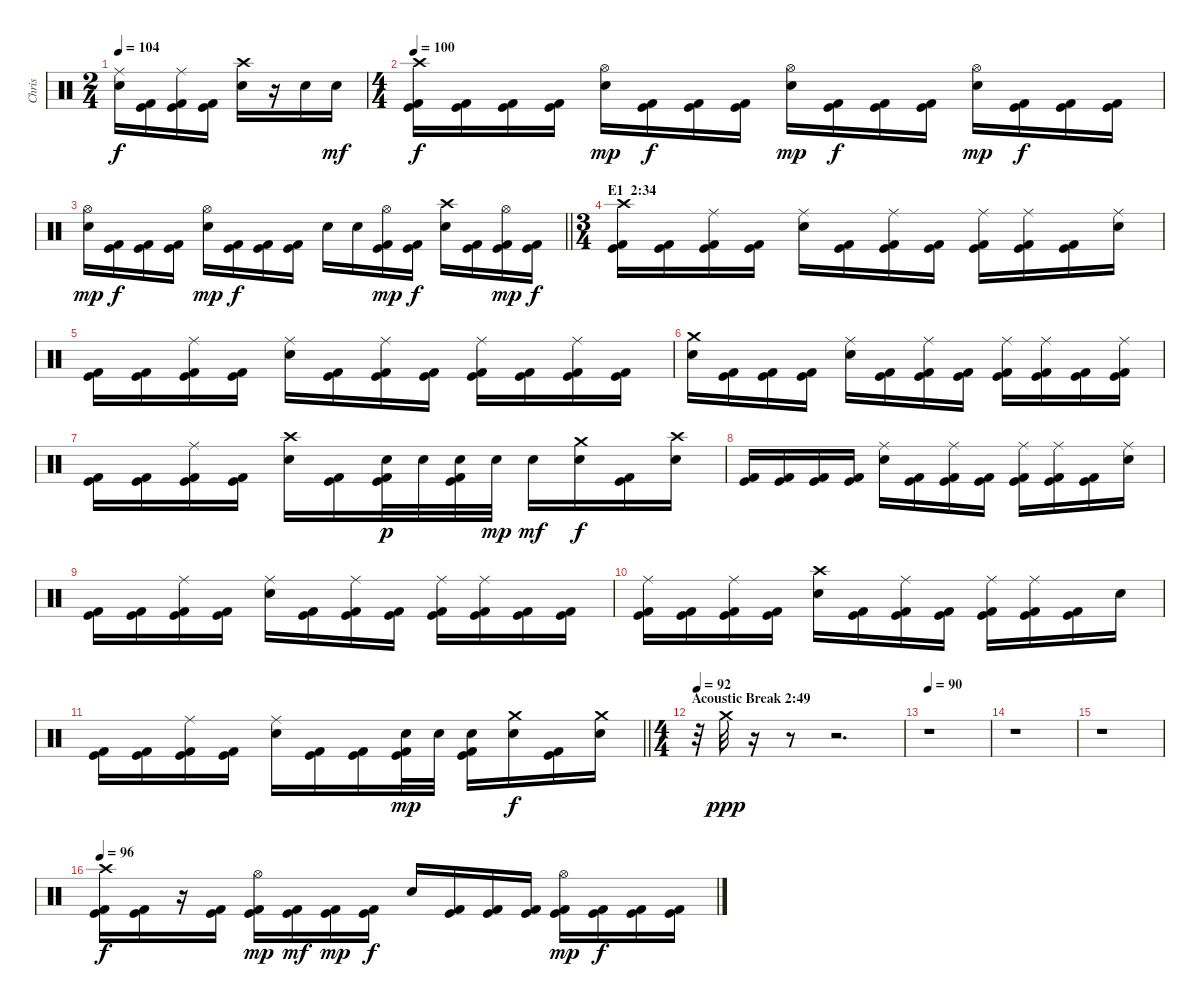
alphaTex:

\track ("Chris" "Chris") {instrument percussion}
\staff {score}
\articulation defaults
\ts (2 4)
\tempo 104
\clef neutral
\ks c
("Ride (middle)" "Electric Snare (hit)").16{dy f} ("Kick (hit)" "Kick (hit) 2").16 ("Ride (middle)" "Kick (hit)" "Kick (hit) 2").16 ("Kick (hit)" "Kick (hit) 2").16 ("Crash high (hit)" "Electric Snare (hit)").16 r.16 "Electric Snare (hit)".16 "Electric Snare (hit)".16{dy mf} |
\ts (4 4)
\tempo 100
("Crash high (hit)" "Kick (hit)" "Kick (hit) 2").16{dy f} ("Kick (hit)" "Kick (hit) 2").16 ("Kick (hit)" "Kick (hit) 2").16 ("Kick (hit)" "Kick (hit) 2").16 ("Hi-Hat (open)" "Electric Snare (hit)").16{dy mp} ("Kick (hit)" "Kick (hit) 2").16{dy f} ("Kick (hit)" "Kick (hit) 2").16 ("Kick (hit)" "Kick (hit) 2").16 ("Hi-Hat (open)" "Electric Snare (hit)").16{dy mp} ("Kick (hit)" "Kick (hit) 2").16{dy f} ("Kick (hit)" "Kick (hit) 2").16 ("Kick (hit)" "Kick (hit) 2").16 ("Hi-Hat (open)" "Electric Snare (hit)").16{dy mp} ("Kick (hit)" "Kick (hit) 2").16{dy f} ("Kick (hit)" "Kick (hit) 2").16 ("Kick (hit)" "Kick (hit) 2").16 |
\barLineRight lightlight
("Hi-Hat (open)" "Electric Snare (hit)").16{dy mp} ("Kick (hit)" "Kick (hit) 2").16{dy f} ("Kick (hit)" "Kick (hit) 2").16 ("Kick (hit)" "Kick (hit) 2").16 ("Hi-Hat (open)" "Electric Snare (hit)").16{dy mp} ("Kick (hit)" "Kick (hit) 2").16{dy f} ("Kick (hit)" "Kick (hit) 2").16 ("Kick (hit)" "Kick (hit) 2").16 "Electric Snare (hit)".16 "Electric Snare (hit)".16 ("Hi-Hat (open)" "Kick (hit)" "Kick (hit) 2").16{dy mp} ("Kick (hit)" "Kick (hit) 2").16{dy f} ("Crash high (hit)" "Electric Snare (hit)").16 ("Kick (hit)" "Kick (hit) 2").16 ("Hi-Hat (open)" "Kick (hit)" "Kick (hit) 2").16{dy mp} ("Kick (hit)" "Kick (hit) 2").16{dy f} |
\ts (3 4)
\section ("" "E1  2:34")
("Crash high (hit)" "Kick (hit)" "Kick (hit) 2").16 ("Kick (hit)" "Kick (hit) 2").16 ("Ride (middle)" "Kick (hit)" "Kick (hit) 2").16 ("Kick (hit)" "Kick (hit) 2").16 ("Ride (middle)" "Electric Snare (hit)").16 ("Kick (hit)" "Kick (hit) 2").16 ("Ride (middle)" "Kick (hit)" "Kick (hit) 2").16 ("Kick (hit)" "Kick (hit) 2").16 ("Ride (middle)" "Kick (hit)" "Kick (hit) 2").16 ("Ride (middle)" "Kick (hit)" "Kick (hit) 2").16 ("Kick (hit)" "Kick (hit) 2").16 ("Ride (middle)" "Electric Snare (hit)").16 |
("Kick (hit)" "Kick (hit) 2").16 ("Kick (hit)" "Kick (hit) 2").16 ("Ride (middle)" "Kick (hit)" "Kick (hit) 2").16 ("Kick (hit)" "Kick (hit) 2").16 ("Ride (middle)" "Electric Snare (hit)").16 ("Kick (hit)" "Kick (hit) 2").16 ("Ride (middle)" "Kick (hit)" "Kick (hit) 2").16 ("Kick (hit)" "Kick (hit) 2").16 ("Ride (middle)" "Kick (hit)" "Kick (hit) 2").16 ("Kick (hit)" "Kick (hit) 2").16 ("Ride (middle)" "Kick (hit)" "Kick (hit) 2").16 ("Kick (hit)" "Kick (hit) 2").16 |
("Crash medium (hit)" "Electric Snare (hit)").16 ("Kick (hit)" "Kick (hit) 2").16 ("Kick (hit)" "Kick (hit) 2").16 ("Kick (hit)" "Kick (hit) 2").16 ("Ride (middle)" "Electric Snare (hit)").16 ("Kick (hit)" "Kick (hit) 2").16 ("Ride (middle)" "Kick (hit)" "Kick (hit) 2").16 ("Kick (hit)" "Kick (hit) 2").16 ("Ride (middle)" "Kick (hit)" "Kick (hit) 2").16 ("Ride (middle)" "Kick (hit)" "Kick (hit) 2").16 ("Kick (hit)" "Kick (hit) 2").16 ("Ride (middle)" "Kick (hit)" "Kick (hit) 2").16 |
("Kick (hit)" "Kick (hit) 2").16 ("Kick (hit)" "Kick (hit) 2").16 ("Ride (middle)" "Kick (hit)" "Kick (hit) 2").16 ("Kick (hit)" "Kick (hit) 2").16 ("Crash high (hit)" "Electric Snare (hit)").16 ("Kick (hit)" "Kick (hit) 2").16 ("Electric Snare (hit)" "Kick (hit)" "Kick (hit) 2").32{dy p} "Electric Snare (hit)".32 ("Electric Snare (hit)" "Kick (hit)" "Kick (hit) 2").32 "Electric Snare (hit)".32{dy mp} "Electric Snare (hit)".16{dy mf} ("Crash medium (hit)" "Electric Snare (hit)").16{dy f} ("Kick (hit)" "Kick (hit) 2").16 ("Crash high (hit)" "Electric Snare (hit)").16 |
("Kick (hit)" "Kick (hit) 2").16 ("Kick (hit)" "Kick (hit) 2").16 ("Kick (hit)" "Kick (hit) 2").16 ("Kick (hit)" "Kick (hit) 2").16 ("Ride (middle)" "Electric Snare (hit)").16 ("Kick (hit)" "Kick (hit) 2").16 ("Ride (middle)" "Kick (hit)" "Kick (hit) 2").16 ("Kick (hit)" "Kick (hit) 2").16 ("Ride (middle)" "Kick (hit)" "Kick (hit) 2").16 ("Ride (middle)" "Kick (hit)" "Kick (hit) 2").16 ("Kick (hit)" "Kick (hit) 2").16 ("Ride (middle)" "Electric Snare (hit)").16 |
("Kick (hit)" "Kick (hit) 2").16 ("Kick (hit)" "Kick (hit) 2").16 ("Ride (middle)" "Kick (hit)" "Kick (hit) 2").16 ("Kick (hit)" "Kick (hit) 2").16 ("Ride (middle)" "Electric Snare (hit)").16 ("Kick (hit)" "Kick (hit) 2").16 ("Ride (middle)" "Kick (hit)" "Kick (hit) 2").16 ("Kick (hit)" "Kick (hit) 2").16 ("Ride (middle)" "Kick (hit)" "Kick (hit) 2").16 ("Ride (middle)" "Kick (hit)" "Kick (hit) 2").16 ("Kick (hit)" "Kick (hit) 2").16 ("Kick (hit)" "Kick (hit) 2").16 |
("Ride (middle)" "Kick (hit)" "Kick (hit) 2").16 ("Kick (hit)" "Kick (hit) 2").16 ("Ride (middle)" "Kick (hit)" "Kick (hit) 2").16 ("Kick (hit)" "Kick (hit) 2").16 ("Crash high (hit)" "Electric Snare (hit)").16 ("Kick (hit)" "Kick (hit) 2").16 ("Ride (middle)" "Kick (hit)" "Kick (hit) 2").16 ("Kick (hit)" "Kick (hit) 2").16 ("Ride (middle)" "Kick (hit)" "Kick (hit) 2").16 ("Ride (middle)" "Kick (hit)" "Kick (hit) 2").16 ("Kick (hit)" "Kick (hit) 2").16 "Electric Snare (hit)".16 |
\barLineRight lightlight
("Kick (hit)" "Kick (hit) 2").16 ("Kick (hit)" "Kick (hit) 2").16 ("Ride (middle)" "Kick (hit)" "Kick (hit) 2").16 ("Kick (hit)" "Kick (hit) 2").16 ("Ride (middle)" "Electric Snare (hit)").16 ("Kick (hit)" "Kick (hit) 2").16 ("Kick (hit)" "Kick (hit) 2").16 ("Electric Snare (hit)" "Kick (hit)" "Kick (hit) 2").32{dy mp} "Electric Snare (hit)".32 ("Electric Snare (hit)" "Kick (hit)" "Kick (hit) 2").16 ("Crash medium (hit)" "Electric Snare (hit)").16{dy f} ("Kick (hit)" "Kick (hit) 2").16 ("Crash medium (hit)" "Electric Snare (hit)").16 |
\ts (4 4)
\section ("" "Acoustic Break 2:49")
\tempo 92
r.32 "Crash medium (hit)".32{dy ppp} r.16 r.8 r.2{d} |
\tempo 90
r.1 |
r.1 |
r.1 |
\tempo 96
("Crash high (hit)" "Kick (hit)" "Kick (hit) 2").16{dy f} ("Kick (hit)" "Kick (hit) 2").16 r.16 ("Kick (hit)" "Kick (hit) 2").16 ("Hi-Hat (open)" "Kick (hit)" "Kick (hit) 2").16{dy mp} ("Kick (hit)" "Kick (hit) 2").16{dy mf} ("Kick (hit)" "Kick (hit) 2").16{dy mp} ("Kick (hit)" "Kick (hit) 2").16{dy f} "Electric Snare (hit)".16 ("Kick (hit)" "Kick (hit) 2").16 ("Kick (hit)" "Kick (hit) 2").16 ("Kick (hit)" "Kick (hit) 2").16 ("Hi-Hat (open)" "Kick (hit)" "Kick (hit) 2").16{dy mp} ("Kick (hit)" "Kick (hit) 2").16{dy f} ("Kick (hit)" "Kick (hit) 2").16 ("Kick (hit)" "Kick (hit) 2").16
